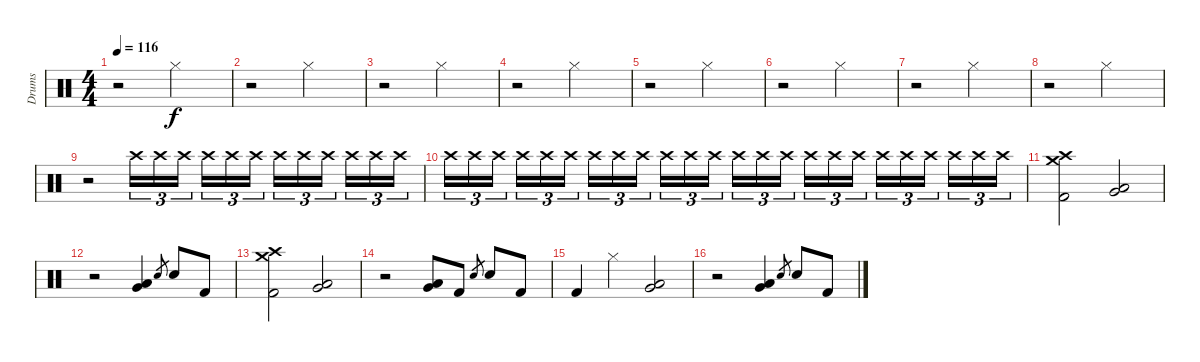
\track ("Drums" "Drums") {instrument percussion}
\staff {score}
\articulation defaults
\ts (4 4)
\tempo 116
\clef neutral
\ks c
r.2{dy f} "Hi-Hat (closed)".2 |
r.2 "Hi-Hat (closed)".2 |
r.2 "Hi-Hat (closed)".2 |
r.2 "Hi-Hat (closed)".2 |
r.2 "Hi-Hat (closed)".2 |
r.2 "Hi-Hat (closed)".2 |
r.2 "Hi-Hat (closed)".2 |
r.2 "Hi-Hat (closed)".2 |
r.2{volume 0} "Crash high (hit)".16{tu (3 2) volume 13} "Crash high (hit)".16{tu (3 2)} "Crash high (hit)".16{tu (3 2) beam splitsecondary} "Crash high (hit)".16{tu (3 2)} "Crash high (hit)".16{tu (3 2)} "Crash high (hit)".16{tu (3 2)} "Crash high (hit)".16{tu (3 2)} "Crash high (hit)".16{tu (3 2)} "Crash high (hit)".16{tu (3 2) beam splitsecondary} "Crash high (hit)".16{tu (3 2)} "Crash high (hit)".16{tu (3 2)} "Crash high (hit)".16{tu (3 2)} |
"Crash high (hit)".16{tu (3 2)} "Crash high (hit)".16{tu (3 2)} "Crash high (hit)".16{tu (3 2) beam splitsecondary} "Crash high (hit)".16{tu (3 2)} "Crash high (hit)".16{tu (3 2)} "Crash high (hit)".16{tu (3 2)} "Crash high (hit)".16{tu (3 2)} "Crash high (hit)".16{tu (3 2)} "Crash high (hit)".16{tu (3 2) beam splitsecondary} "Crash high (hit)".16{tu (3 2)} "Crash high (hit)".16{tu (3 2)} "Crash high (hit)".16{tu (3 2)} "Crash high (hit)".16{tu (3 2)} "Crash high (hit)".16{tu (3 2)} "Crash high (hit)".16{tu (3 2) beam splitsecondary} "Crash high (hit)".16{tu (3 2)} "Crash high (hit)".16{tu (3 2)} "Crash high (hit)".16{tu (3 2)} "Crash high (hit)".16{tu (3 2)} "Crash high (hit)".16{tu (3 2)} "Crash high (hit)".16{tu (3 2) beam splitsecondary} "Crash high (hit)".16{tu (3 2)} "Crash high (hit)".16{tu (3 2)} "Crash high (hit)".16{tu (3 2)} |
("Crash high (hit)" "Crash medium (hit)" "Kick (hit) 2").2{balance 8} ("Low Tom (hit)" "Very Low Tom (hit)").2 |
r.2 ("Low Tom (hit)" "Very Low Tom (hit)").4 "Electric Snare (hit)".8{gr} "Electric Snare (hit)".8 "Kick (hit) 2".8 |
("Crash high (hit)" "Crash medium (hit)" "Kick (hit) 2").2 ("Low Tom (hit)" "Very Low Tom (hit)").2 |
r.2 ("Low Tom (hit)" "Very Low Tom (hit)").8 "Kick (hit) 2".8 "Electric Snare (hit)".8{gr} "Electric Snare (hit)".8 "Kick (hit) 2".8 |
"Kick (hit) 2".4 "Hi-Hat (closed)".4 ("Very Low Tom (hit)" "Low Floor Tom (hit)").2 |
r.2 ("Low Tom (hit)" "Very Low Tom (hit)").4 "Electric Snare (hit)".8{gr} "Electric Snare (hit)".8 "Kick (hit) 2".8
